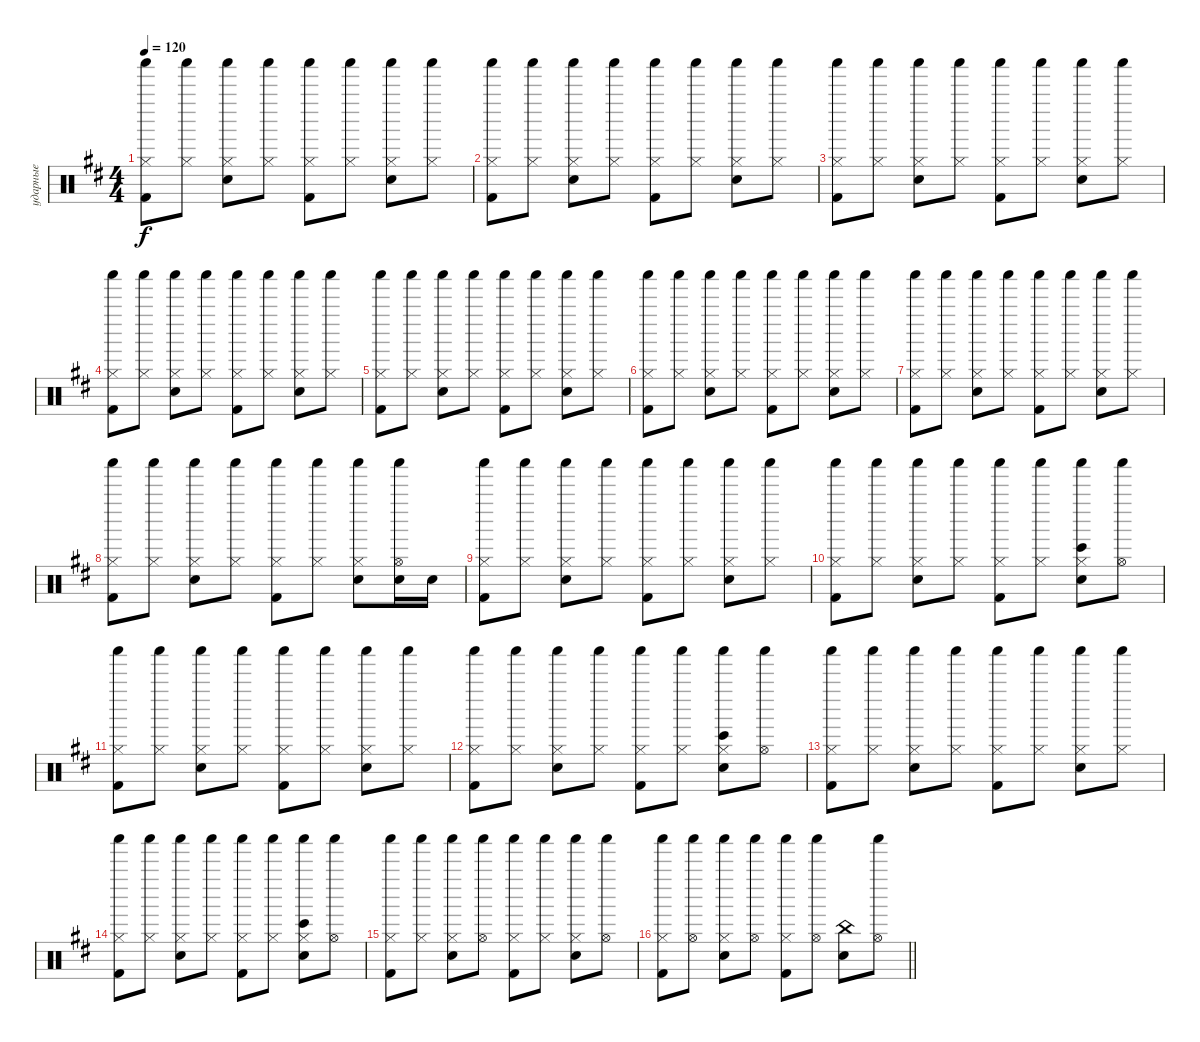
\track ("ударные" "ударные") {instrument percussion}
\staff {score}
\articulation defaults
\ts (4 4)
\tempo 120
\clef neutral
\ks bminor
("Hi-Hat (closed)" "Shaker (hit)" "Kick (hit) 2").8{dy f} ("Hi-Hat (closed)" "Shaker (hit)").8 ("Hi-Hat (closed)" "Shaker (hit)" "Snare (hit) 2").8 ("Hi-Hat (closed)" "Shaker (hit)").8 ("Hi-Hat (closed)" "Shaker (hit)" "Kick (hit) 2").8 ("Hi-Hat (closed)" "Shaker (hit)").8 ("Hi-Hat (closed)" "Shaker (hit)" "Snare (hit) 2").8 ("Hi-Hat (closed)" "Shaker (hit)").8 |
("Hi-Hat (closed)" "Shaker (hit)" "Kick (hit) 2").8 ("Hi-Hat (closed)" "Shaker (hit)").8 ("Hi-Hat (closed)" "Shaker (hit)" "Snare (hit) 2").8 ("Hi-Hat (closed)" "Shaker (hit)").8 ("Hi-Hat (closed)" "Shaker (hit)" "Kick (hit) 2").8 ("Hi-Hat (closed)" "Shaker (hit)").8 ("Hi-Hat (closed)" "Shaker (hit)" "Snare (hit) 2").8 ("Hi-Hat (closed)" "Shaker (hit)").8 |
("Hi-Hat (closed)" "Shaker (hit)" "Kick (hit) 2").8 ("Hi-Hat (closed)" "Shaker (hit)").8 ("Hi-Hat (closed)" "Shaker (hit)" "Snare (hit) 2").8 ("Hi-Hat (closed)" "Shaker (hit)").8 ("Hi-Hat (closed)" "Shaker (hit)" "Kick (hit) 2").8 ("Hi-Hat (closed)" "Shaker (hit)").8 ("Hi-Hat (closed)" "Shaker (hit)" "Snare (hit) 2").8 ("Hi-Hat (closed)" "Shaker (hit)").8 |
("Hi-Hat (closed)" "Shaker (hit)" "Kick (hit) 2").8 ("Hi-Hat (closed)" "Shaker (hit)").8 ("Hi-Hat (closed)" "Shaker (hit)" "Snare (hit) 2").8 ("Hi-Hat (closed)" "Shaker (hit)").8 ("Hi-Hat (closed)" "Shaker (hit)" "Kick (hit) 2").8 ("Hi-Hat (closed)" "Shaker (hit)").8 ("Hi-Hat (closed)" "Shaker (hit)" "Snare (hit) 2").8 ("Hi-Hat (closed)" "Shaker (hit)").8 |
("Hi-Hat (closed)" "Shaker (hit)" "Kick (hit) 2").8 ("Hi-Hat (closed)" "Shaker (hit)").8 ("Hi-Hat (closed)" "Shaker (hit)" "Snare (hit) 2").8 ("Hi-Hat (closed)" "Shaker (hit)").8 ("Hi-Hat (closed)" "Shaker (hit)" "Kick (hit) 2").8 ("Hi-Hat (closed)" "Shaker (hit)").8 ("Hi-Hat (closed)" "Shaker (hit)" "Snare (hit) 2").8 ("Hi-Hat (closed)" "Shaker (hit)").8 |
("Hi-Hat (closed)" "Shaker (hit)" "Kick (hit) 2").8 ("Hi-Hat (closed)" "Shaker (hit)").8 ("Hi-Hat (closed)" "Shaker (hit)" "Snare (hit) 2").8 ("Hi-Hat (closed)" "Shaker (hit)").8 ("Hi-Hat (closed)" "Shaker (hit)" "Kick (hit) 2").8 ("Hi-Hat (closed)" "Shaker (hit)").8 ("Hi-Hat (closed)" "Shaker (hit)" "Snare (hit) 2").8 ("Hi-Hat (closed)" "Shaker (hit)").8 |
("Hi-Hat (closed)" "Shaker (hit)" "Kick (hit) 2").8 ("Hi-Hat (closed)" "Shaker (hit)").8 ("Hi-Hat (closed)" "Shaker (hit)" "Snare (hit) 2").8 ("Hi-Hat (closed)" "Shaker (hit)").8 ("Hi-Hat (closed)" "Shaker (hit)" "Kick (hit) 2").8 ("Hi-Hat (closed)" "Shaker (hit)").8 ("Hi-Hat (closed)" "Shaker (hit)" "Snare (hit) 2").8 ("Hi-Hat (closed)" "Shaker (hit)").8 |
("Hi-Hat (closed)" "Shaker (hit)" "Kick (hit) 2").8 ("Hi-Hat (closed)" "Shaker (hit)").8 ("Hi-Hat (closed)" "Shaker (hit)" "Snare (hit) 2").8 ("Hi-Hat (closed)" "Shaker (hit)").8 ("Hi-Hat (closed)" "Shaker (hit)" "Kick (hit) 2").8 ("Hi-Hat (closed)" "Shaker (hit)").8 ("Hi-Hat (closed)" "Shaker (hit)" "Snare (hit) 2").8 ("Shaker (hit)" "Hi-Hat (open)" "Snare (hit) 2").16 "Snare (hit) 2".16 |
("Hi-Hat (closed)" "Shaker (hit)" "Kick (hit) 2").8 ("Hi-Hat (closed)" "Shaker (hit)").8 ("Hi-Hat (closed)" "Shaker (hit)" "Snare (hit) 2").8 ("Hi-Hat (closed)" "Shaker (hit)").8 ("Hi-Hat (closed)" "Shaker (hit)" "Kick (hit) 2").8 ("Hi-Hat (closed)" "Shaker (hit)").8 ("Hi-Hat (closed)" "Shaker (hit)" "Snare (hit) 2").8 ("Hi-Hat (closed)" "Shaker (hit)").8 |
("Hi-Hat (closed)" "Shaker (hit)" "Kick (hit) 2").8 ("Hi-Hat (closed)" "Shaker (hit)").8 ("Hi-Hat (closed)" "Shaker (hit)" "Snare (hit) 2").8 ("Hi-Hat (closed)" "Shaker (hit)").8 ("Hi-Hat (closed)" "Shaker (hit)" "Kick (hit) 2").8 ("Hi-Hat (closed)" "Shaker (hit)").8 ("Snare (hit) 2" "Shaker (hit)" "Bongo High (hit)" "Hi-Hat (closed)").8 ("Shaker (hit)" "Hi-Hat (open)").8 |
("Hi-Hat (closed)" "Shaker (hit)" "Kick (hit) 2").8 ("Hi-Hat (closed)" "Shaker (hit)").8 ("Hi-Hat (closed)" "Shaker (hit)" "Snare (hit) 2").8 ("Hi-Hat (closed)" "Shaker (hit)").8 ("Hi-Hat (closed)" "Shaker (hit)" "Kick (hit) 2").8 ("Hi-Hat (closed)" "Shaker (hit)").8 ("Hi-Hat (closed)" "Shaker (hit)" "Snare (hit) 2").8 ("Hi-Hat (closed)" "Shaker (hit)").8 |
("Hi-Hat (closed)" "Shaker (hit)" "Kick (hit) 2").8 ("Hi-Hat (closed)" "Shaker (hit)").8 ("Hi-Hat (closed)" "Shaker (hit)" "Snare (hit) 2").8 ("Hi-Hat (closed)" "Shaker (hit)").8 ("Hi-Hat (closed)" "Shaker (hit)" "Kick (hit) 2").8 ("Hi-Hat (closed)" "Shaker (hit)").8 ("Snare (hit) 2" "Shaker (hit)" "Bongo High (hit)" "Hi-Hat (closed)").8 ("Shaker (hit)" "Hi-Hat (open)").8 |
("Hi-Hat (closed)" "Shaker (hit)" "Kick (hit) 2").8 ("Hi-Hat (closed)" "Shaker (hit)").8 ("Hi-Hat (closed)" "Shaker (hit)" "Snare (hit) 2").8 ("Hi-Hat (closed)" "Shaker (hit)").8 ("Hi-Hat (closed)" "Shaker (hit)" "Kick (hit) 2").8 ("Hi-Hat (closed)" "Shaker (hit)").8 ("Hi-Hat (closed)" "Shaker (hit)" "Snare (hit) 2").8 ("Hi-Hat (closed)" "Shaker (hit)").8 |
("Hi-Hat (closed)" "Shaker (hit)" "Kick (hit) 2").8 ("Hi-Hat (closed)" "Shaker (hit)").8 ("Hi-Hat (closed)" "Shaker (hit)" "Snare (hit) 2").8 ("Hi-Hat (closed)" "Shaker (hit)").8 ("Hi-Hat (closed)" "Shaker (hit)" "Kick (hit) 2").8 ("Hi-Hat (closed)" "Shaker (hit)").8 ("Snare (hit) 2" "Shaker (hit)" "Bongo High (hit)" "Hi-Hat (closed)").8 ("Shaker (hit)" "Hi-Hat (open)").8 |
("Hi-Hat (closed)" "Shaker (hit)" "Kick (hit) 2").8 ("Hi-Hat (closed)" "Shaker (hit)").8 ("Hi-Hat (closed)" "Shaker (hit)" "Snare (hit) 2").8 ("Shaker (hit)" "Hi-Hat (open)").8 ("Hi-Hat (closed)" "Shaker (hit)" "Kick (hit) 2").8 ("Hi-Hat (closed)" "Shaker (hit)").8 ("Snare (hit) 2" "Shaker (hit)" "Hi-Hat (closed)").8 ("Shaker (hit)" "Hi-Hat (open)").8 |
\barLineRight lightlight
("Hi-Hat (closed)" "Shaker (hit)" "Kick (hit) 2").8 ("Shaker (hit)" "Hi-Hat (open)").8 ("Hi-Hat (closed)" "Shaker (hit)" "Snare (hit) 2").8 ("Shaker (hit)" "Hi-Hat (open)").8 ("Hi-Hat (closed)" "Shaker (hit)" "Kick (hit) 2").8 ("Shaker (hit)" "Hi-Hat (open)").8 ("Snare (hit) 2" "China (hit)").8 ("Shaker (hit)" "Hi-Hat (open)").8
